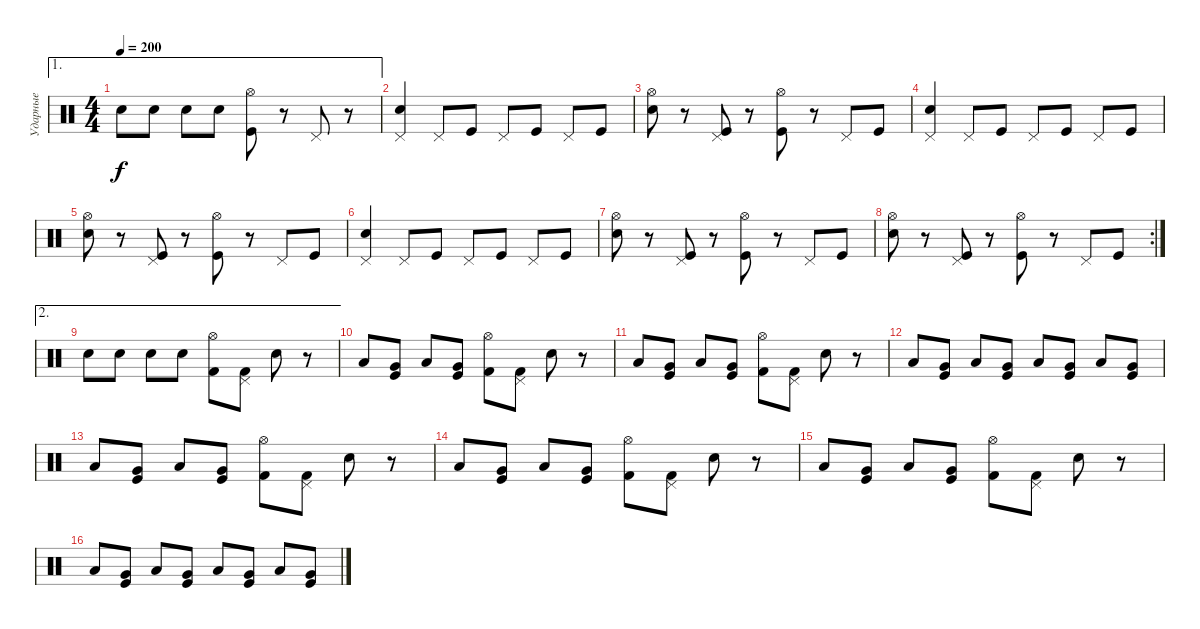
\track ("Ударные" "Ударные") {instrument percussion}
\staff {score}
\articulation defaults
\ae 1
\ts (4 4)
\tempo 200
\clef neutral
\ks c "Electric Snare (hit)".8{dy f} "Electric Snare (hit)".8 "Electric Snare (hit)".8 "Electric Snare (hit)".8
("Hi-Hat (open)" "Kick (hit)").8 r.8 "Pedal Hi-Hat (hit)".8 r.8 |
("Pedal Hi-Hat (hit)" "Electric Snare (hit)").4 "Pedal Hi-Hat (hit)".8 "Kick (hit)".8 "Pedal Hi-Hat (hit)".8 "Kick (hit)".8 "Pedal Hi-Hat (hit)".8 "Kick (hit)".8 |
("Hi-Hat (open)" "Electric Snare (hit)").8 r.8 ("Pedal Hi-Hat (hit)" "Kick (hit)").8 r.8 ("Hi-Hat (open)" "Kick (hit)").8 r.8 "Pedal Hi-Hat (hit)".8 "Kick (hit)".8 |
("Pedal Hi-Hat (hit)" "Electric Snare (hit)").4 "Pedal Hi-Hat (hit)".8 "Kick (hit)".8 "Pedal Hi-Hat (hit)".8 "Kick (hit)".8 "Pedal Hi-Hat (hit)".8 "Kick (hit)".8 |
("Hi-Hat (open)" "Electric Snare (hit)").8 r.8 ("Pedal Hi-Hat (hit)" "Kick (hit)").8 r.8 ("Hi-Hat (open)" "Kick (hit)").8 r.8 "Pedal Hi-Hat (hit)".8 "Kick (hit)".8 |
("Pedal Hi-Hat (hit)" "Electric Snare (hit)").4 "Pedal Hi-Hat (hit)".8 "Kick (hit)".8 "Pedal Hi-Hat (hit)".8 "Kick (hit)".8 "Pedal Hi-Hat (hit)".8 "Kick (hit)".8 |
("Hi-Hat (open)" "Electric Snare (hit)").8 r.8 ("Pedal Hi-Hat (hit)" "Kick (hit)").8 r.8 ("Hi-Hat (open)" "Kick (hit)").8 r.8 "Pedal Hi-Hat (hit)".8 "Kick (hit)".8 |
\rc 2
("Hi-Hat (open)" "Electric Snare (hit)").8 r.8 ("Pedal Hi-Hat (hit)" "Kick (hit)").8 r.8 ("Hi-Hat (open)" "Kick (hit)").8 r.8 "Pedal Hi-Hat (hit)".8 "Kick (hit)".8 |
\ae 2 "Electric Snare (hit)".8 "Electric Snare (hit)".8 "Electric Snare (hit)".8 "Electric Snare (hit)".8
("Hi-Hat (open)" "Kick (hit) 2").8 ("Pedal Hi-Hat (hit)" "Kick (hit) 2").8 "Electric Snare (hit)".8 r.8 |
"Low Tom (hit)".8 ("Very Low Tom (hit)" "Kick (hit)").8 "Low Floor Tom (hit)".8 ("Very Low Tom (hit)" "Kick (hit)").8 ("Hi-Hat (open)" "Kick (hit) 2").8 ("Pedal Hi-Hat (hit)" "Kick (hit) 2").8 "Electric Snare (hit)".8 r.8 |
"Low Tom (hit)".8 ("Very Low Tom (hit)" "Kick (hit)").8 "Low Floor Tom (hit)".8 ("Very Low Tom (hit)" "Kick (hit)").8 ("Hi-Hat (open)" "Kick (hit) 2").8 ("Pedal Hi-Hat (hit)" "Kick (hit) 2").8 "Electric Snare (hit)".8 r.8 |
"Low Tom (hit)".8 ("Very Low Tom (hit)" "Kick (hit)").8 "Low Floor Tom (hit)".8 ("Very Low Tom (hit)" "Kick (hit)").8 "Low Tom (hit)".8 ("Very Low Tom (hit)" "Kick (hit)").8 "Low Floor Tom (hit)".8 ("Very Low Tom (hit)" "Kick (hit)").8 |
"Low Tom (hit)".8 ("Very Low Tom (hit)" "Kick (hit)").8 "Low Floor Tom (hit)".8 ("Very Low Tom (hit)" "Kick (hit)").8 ("Hi-Hat (open)" "Kick (hit) 2").8 ("Pedal Hi-Hat (hit)" "Kick (hit) 2").8 "Electric Snare (hit)".8 r.8 |
"Low Tom (hit)".8 ("Very Low Tom (hit)" "Kick (hit)").8 "Low Floor Tom (hit)".8 ("Very Low Tom (hit)" "Kick (hit)").8 ("Hi-Hat (open)" "Kick (hit) 2").8 ("Pedal Hi-Hat (hit)" "Kick (hit) 2").8 "Electric Snare (hit)".8 r.8 |
"Low Tom (hit)".8 ("Very Low Tom (hit)" "Kick (hit)").8 "Low Floor Tom (hit)".8 ("Very Low Tom (hit)" "Kick (hit)").8 ("Hi-Hat (open)" "Kick (hit) 2").8 ("Pedal Hi-Hat (hit)" "Kick (hit) 2").8 "Electric Snare (hit)".8 r.8 |
"Low Tom (hit)".8 ("Very Low Tom (hit)" "Kick (hit)").8 "Low Floor Tom (hit)".8 ("Very Low Tom (hit)" "Kick (hit)").8 "Low Tom (hit)".8 ("Very Low Tom (hit)" "Kick (hit)").8 "Low Floor Tom (hit)".8 ("Very Low Tom (hit)" "Kick (hit)").8
